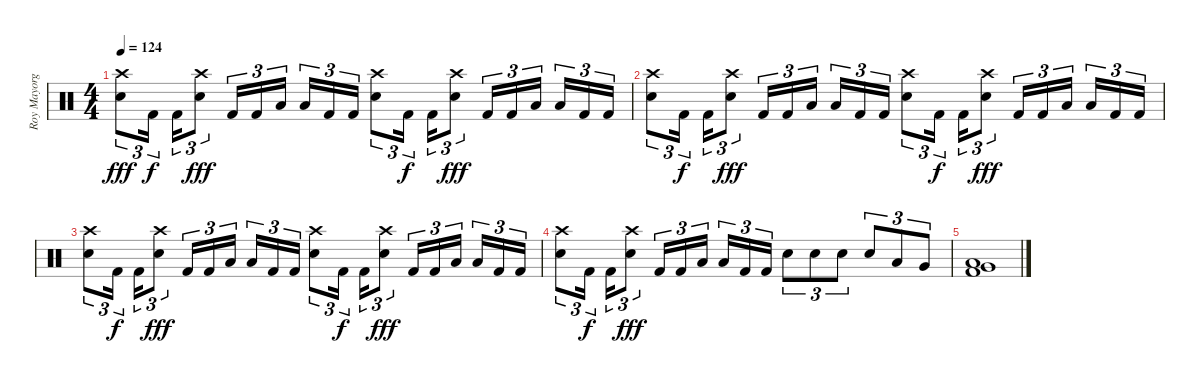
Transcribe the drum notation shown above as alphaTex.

\track ("Roy Mayorga" "Roy Mayorg") {instrument percussion}
\staff {score}
\articulation defaults
\ts (4 4)
\tempo 124
\clef neutral
\ks c
("Crash high (hit)" "Electric Snare (hit)").8{tu (3 2) dy fff} "Kick (hit) 2".16{tu (3 2) dy f beam splitsecondary} "Kick (hit) 2".16{tu (3 2)} ("Crash high (hit)" "Electric Snare (hit)").8{tu (3 2) dy fff} "Kick (hit) 2".16{tu (3 2)} "Kick (hit) 2".16{tu (3 2)} "Low Tom (hit)".16{tu (3 2) beam splitsecondary} "Low Tom (hit)".16{tu (3 2)} "Kick (hit) 2".16{tu (3 2)} "Kick (hit) 2".16{tu (3 2)} ("Crash high (hit)" "Electric Snare (hit)").8{tu (3 2)} "Kick (hit) 2".16{tu (3 2) dy f beam splitsecondary} "Kick (hit) 2".16{tu (3 2)} ("Crash high (hit)" "Electric Snare (hit)").8{tu (3 2) dy fff} "Kick (hit) 2".16{tu (3 2)} "Kick (hit) 2".16{tu (3 2)} "Low Tom (hit)".16{tu (3 2) beam splitsecondary} "Low Tom (hit)".16{tu (3 2)} "Kick (hit) 2".16{tu (3 2)} "Kick (hit) 2".16{tu (3 2)} |
("Crash high (hit)" "Electric Snare (hit)").8{tu (3 2)} "Kick (hit) 2".16{tu (3 2) dy f beam splitsecondary} "Kick (hit) 2".16{tu (3 2)} ("Crash high (hit)" "Electric Snare (hit)").8{tu (3 2) dy fff} "Kick (hit) 2".16{tu (3 2)} "Kick (hit) 2".16{tu (3 2)} "Low Tom (hit)".16{tu (3 2) beam splitsecondary} "Low Tom (hit)".16{tu (3 2)} "Kick (hit) 2".16{tu (3 2)} "Kick (hit) 2".16{tu (3 2)} ("Crash high (hit)" "Electric Snare (hit)").8{tu (3 2)} "Kick (hit) 2".16{tu (3 2) dy f beam splitsecondary} "Kick (hit) 2".16{tu (3 2)} ("Crash high (hit)" "Electric Snare (hit)").8{tu (3 2) dy fff} "Kick (hit) 2".16{tu (3 2)} "Kick (hit) 2".16{tu (3 2)} "Low Tom (hit)".16{tu (3 2) beam splitsecondary} "Low Tom (hit)".16{tu (3 2)} "Kick (hit) 2".16{tu (3 2)} "Kick (hit) 2".16{tu (3 2)} |
("Crash high (hit)" "Electric Snare (hit)").8{tu (3 2)} "Kick (hit) 2".16{tu (3 2) dy f beam splitsecondary} "Kick (hit) 2".16{tu (3 2)} ("Crash high (hit)" "Electric Snare (hit)").8{tu (3 2) dy fff} "Kick (hit) 2".16{tu (3 2)} "Kick (hit) 2".16{tu (3 2)} "Low Tom (hit)".16{tu (3 2) beam splitsecondary} "Low Tom (hit)".16{tu (3 2)} "Kick (hit) 2".16{tu (3 2)} "Kick (hit) 2".16{tu (3 2)} ("Crash high (hit)" "Electric Snare (hit)").8{tu (3 2)} "Kick (hit) 2".16{tu (3 2) dy f beam splitsecondary} "Kick (hit) 2".16{tu (3 2)} ("Crash high (hit)" "Electric Snare (hit)").8{tu (3 2) dy fff} "Kick (hit) 2".16{tu (3 2)} "Kick (hit) 2".16{tu (3 2)} "Low Tom (hit)".16{tu (3 2) beam splitsecondary} "Low Tom (hit)".16{tu (3 2)} "Kick (hit) 2".16{tu (3 2)} "Kick (hit) 2".16{tu (3 2)} |
("Crash high (hit)" "Electric Snare (hit)").8{tu (3 2)} "Kick (hit) 2".16{tu (3 2) dy f beam splitsecondary} "Kick (hit) 2".16{tu (3 2)} ("Crash high (hit)" "Electric Snare (hit)").8{tu (3 2) dy fff} "Kick (hit) 2".16{tu (3 2)} "Kick (hit) 2".16{tu (3 2)} "Low Tom (hit)".16{tu (3 2) beam splitsecondary} "Low Tom (hit)".16{tu (3 2)} "Kick (hit) 2".16{tu (3 2)} "Kick (hit) 2".16{tu (3 2)} "Electric Snare (hit)".8{tu (3 2)} "Electric Snare (hit)".8{tu (3 2)} "Electric Snare (hit)".8{tu (3 2)} "Electric Snare (hit)".8{tu (3 2)} "Low Tom (hit)".8{tu (3 2)} "Very Low Tom (hit)".8{tu (3 2)} |
("Very Low Tom (hit)" "Low Floor Tom (hit)" "Kick (hit) 2").1
